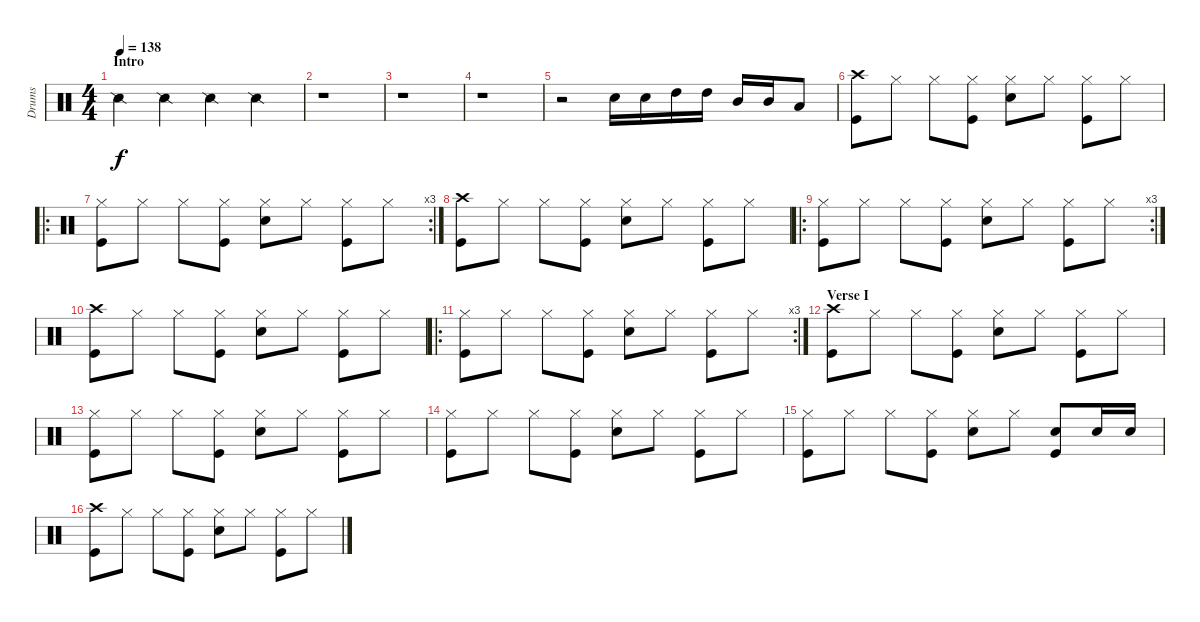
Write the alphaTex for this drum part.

\track ("Drums" "Drums") {instrument percussion}
\staff {score}
\articulation defaults
\ts (4 4)
\section ("" "Intro")
\tempo 138
\clef neutral
\ks c "Snare (side stick) 2".4{dy f} "Snare (side stick) 2".4 "Snare (side stick) 2".4 "Snare (side stick) 2".4
|
r.1 |
r.1 |
r.1 |
r.2 "Snare (hit) 2".16 "Snare (hit) 2".16 "High Tom (hit)".16 "High Tom (hit)".16 "Mid Tom (hit)".16 "Mid Tom (hit)".16 "Low Tom (hit)".8 |
("Crash high (hit)" "Kick (hit)").8 "Hi-Hat (closed)".8 "Hi-Hat (closed)".8 ("Hi-Hat (closed)" "Kick (hit)").8 ("Hi-Hat (closed)" "Snare (hit) 2").8 "Hi-Hat (closed)".8 ("Hi-Hat (closed)" "Kick (hit)").8 "Hi-Hat (closed)".8 |
\ro
\rc 3
("Hi-Hat (closed)" "Kick (hit)").8 "Hi-Hat (closed)".8 "Hi-Hat (closed)".8 ("Hi-Hat (closed)" "Kick (hit)").8 ("Hi-Hat (closed)" "Snare (hit) 2").8 "Hi-Hat (closed)".8 ("Hi-Hat (closed)" "Kick (hit)").8 "Hi-Hat (closed)".8 |
("Crash high (hit)" "Kick (hit)").8 "Hi-Hat (closed)".8 "Hi-Hat (closed)".8 ("Hi-Hat (closed)" "Kick (hit)").8 ("Hi-Hat (closed)" "Snare (hit) 2").8 "Hi-Hat (closed)".8 ("Hi-Hat (closed)" "Kick (hit)").8 "Hi-Hat (closed)".8 |
\ro
\rc 3
("Hi-Hat (closed)" "Kick (hit)").8 "Hi-Hat (closed)".8 "Hi-Hat (closed)".8 ("Hi-Hat (closed)" "Kick (hit)").8 ("Hi-Hat (closed)" "Snare (hit) 2").8 "Hi-Hat (closed)".8 ("Hi-Hat (closed)" "Kick (hit)").8 "Hi-Hat (closed)".8 |
("Crash high (hit)" "Kick (hit)").8 "Hi-Hat (closed)".8 "Hi-Hat (closed)".8 ("Hi-Hat (closed)" "Kick (hit)").8 ("Hi-Hat (closed)" "Snare (hit) 2").8 "Hi-Hat (closed)".8 ("Hi-Hat (closed)" "Kick (hit)").8 "Hi-Hat (closed)".8 |
\ro
\rc 3
("Hi-Hat (closed)" "Kick (hit)").8 "Hi-Hat (closed)".8 "Hi-Hat (closed)".8 ("Hi-Hat (closed)" "Kick (hit)").8 ("Hi-Hat (closed)" "Snare (hit) 2").8 "Hi-Hat (closed)".8 ("Hi-Hat (closed)" "Kick (hit)").8 "Hi-Hat (closed)".8 |
\section ("" "Verse I")
("Crash high (hit)" "Kick (hit)").8 "Hi-Hat (closed)".8 "Hi-Hat (closed)".8 ("Hi-Hat (closed)" "Kick (hit)").8 ("Hi-Hat (closed)" "Snare (hit) 2").8 "Hi-Hat (closed)".8 ("Hi-Hat (closed)" "Kick (hit)").8 "Hi-Hat (closed)".8 |
("Hi-Hat (closed)" "Kick (hit)").8 "Hi-Hat (closed)".8 "Hi-Hat (closed)".8 ("Hi-Hat (closed)" "Kick (hit)").8 ("Hi-Hat (closed)" "Snare (hit) 2").8 "Hi-Hat (closed)".8 ("Hi-Hat (closed)" "Kick (hit)").8 "Hi-Hat (closed)".8 |
("Hi-Hat (closed)" "Kick (hit)").8 "Hi-Hat (closed)".8 "Hi-Hat (closed)".8 ("Hi-Hat (closed)" "Kick (hit)").8 ("Hi-Hat (closed)" "Snare (hit) 2").8 "Hi-Hat (closed)".8 ("Hi-Hat (closed)" "Kick (hit)").8 "Hi-Hat (closed)".8 |
("Hi-Hat (closed)" "Kick (hit)").8 "Hi-Hat (closed)".8 "Hi-Hat (closed)".8 ("Hi-Hat (closed)" "Kick (hit)").8 ("Hi-Hat (closed)" "Snare (hit) 2").8 "Hi-Hat (closed)".8 ("Snare (hit) 2" "Kick (hit)").8 "Snare (hit) 2".16 "Snare (hit) 2".16 |
("Crash high (hit)" "Kick (hit)").8 "Hi-Hat (closed)".8 "Hi-Hat (closed)".8 ("Hi-Hat (closed)" "Kick (hit)").8 ("Hi-Hat (closed)" "Snare (hit) 2").8 "Hi-Hat (closed)".8 ("Hi-Hat (closed)" "Kick (hit)").8 "Hi-Hat (closed)".8
